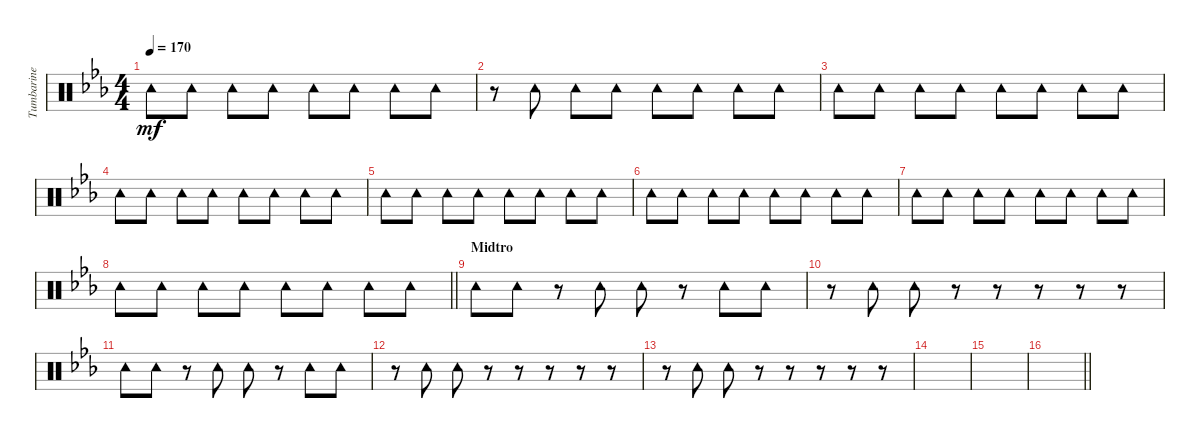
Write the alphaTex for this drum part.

\track ("Tumbarine" "Tumbarine") {solo instrument percussion}
\staff {score}
\articulation defaults
\ts (4 4)
\tempo 170
\clef neutral
\ks eb "Tambourine (hit)".8{dy mf} "Tambourine (hit)".8 "Tambourine (hit)".8 "Tambourine (hit)".8 "Tambourine (hit)".8 "Tambourine (hit)".8 "Tambourine (hit)".8 "Tambourine (hit)".8
|
r.8 "Tambourine (hit)".8 "Tambourine (hit)".8 "Tambourine (hit)".8 "Tambourine (hit)".8 "Tambourine (hit)".8 "Tambourine (hit)".8 "Tambourine (hit)".8 |
"Tambourine (hit)".8 "Tambourine (hit)".8 "Tambourine (hit)".8 "Tambourine (hit)".8 "Tambourine (hit)".8 "Tambourine (hit)".8 "Tambourine (hit)".8 "Tambourine (hit)".8 |
"Tambourine (hit)".8 "Tambourine (hit)".8 "Tambourine (hit)".8 "Tambourine (hit)".8 "Tambourine (hit)".8 "Tambourine (hit)".8 "Tambourine (hit)".8 "Tambourine (hit)".8 |
"Tambourine (hit)".8 "Tambourine (hit)".8 "Tambourine (hit)".8 "Tambourine (hit)".8 "Tambourine (hit)".8 "Tambourine (hit)".8 "Tambourine (hit)".8 "Tambourine (hit)".8 |
"Tambourine (hit)".8 "Tambourine (hit)".8 "Tambourine (hit)".8 "Tambourine (hit)".8 "Tambourine (hit)".8 "Tambourine (hit)".8 "Tambourine (hit)".8 "Tambourine (hit)".8 |
"Tambourine (hit)".8 "Tambourine (hit)".8 "Tambourine (hit)".8 "Tambourine (hit)".8 "Tambourine (hit)".8 "Tambourine (hit)".8 "Tambourine (hit)".8 "Tambourine (hit)".8 |
\barLineRight lightlight "Tambourine (hit)".8 "Tambourine (hit)".8 "Tambourine (hit)".8 "Tambourine (hit)".8 "Tambourine (hit)".8 "Tambourine (hit)".8 "Tambourine (hit)".8 "Tambourine (hit)".8
|
\section ("" "Midtro")
"Tambourine (hit)".8 "Tambourine (hit)".8 r.8 "Tambourine (hit)".8 "Tambourine (hit)".8 r.8 "Tambourine (hit)".8 "Tambourine (hit)".8 |
r.8 "Tambourine (hit)".8 "Tambourine (hit)".8 r.8 r.8 r.8 r.8 r.8 |
"Tambourine (hit)".8 "Tambourine (hit)".8 r.8 "Tambourine (hit)".8 "Tambourine (hit)".8 r.8 "Tambourine (hit)".8 "Tambourine (hit)".8 |
r.8 "Tambourine (hit)".8 "Tambourine (hit)".8 r.8 r.8 r.8 r.8 r.8 |
r.8 "Tambourine (hit)".8 "Tambourine (hit)".8 r.8 r.8 r.8 r.8 r.8 |
|
|
\barLineRight lightlight
